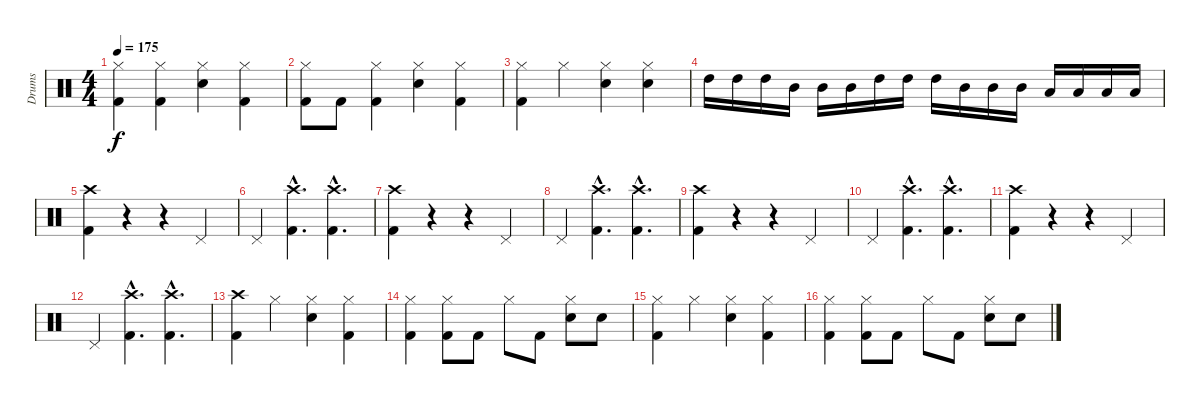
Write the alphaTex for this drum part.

\track ("Drums" "Drums") {instrument percussion}
\staff {score}
\articulation defaults
\ts (4 4)
\tempo 175
\clef neutral
\ks c
("Hi-Hat (closed)" "Kick (hit) 2").4{dy f} ("Hi-Hat (closed)" "Kick (hit) 2").4 ("Hi-Hat (closed)" "Electric Snare (hit)").4 ("Hi-Hat (closed)" "Kick (hit) 2").4 |
("Hi-Hat (closed)" "Kick (hit) 2").8 "Kick (hit) 2".8 ("Hi-Hat (closed)" "Kick (hit) 2").4 ("Hi-Hat (closed)" "Electric Snare (hit)").4 ("Hi-Hat (closed)" "Kick (hit) 2").4 |
("Hi-Hat (closed)" "Kick (hit) 2").4 "Hi-Hat (closed)".4 ("Hi-Hat (closed)" "Electric Snare (hit)").4 ("Hi-Hat (closed)" "Electric Snare (hit)").4 |
"High Tom (hit)".16 "High Tom (hit)".16 "High Tom (hit)".16 "Mid Tom (hit)".16 "Mid Tom (hit)".16 "Mid Tom (hit)".16 "High Tom (hit)".16 "High Tom (hit)".16 "High Tom (hit)".16 "Mid Tom (hit)".16 "Mid Tom (hit)".16 "Mid Tom (hit)".16 "Low Tom (hit)".16 "Low Tom (hit)".16 "Low Tom (hit)".16 "Low Tom (hit)".16 |
("Crash high (hit)" "Kick (hit) 2").4 r.4 r.4 "Pedal Hi-Hat (hit)".4 |
"Pedal Hi-Hat (hit)".4 ("Crash high (hit)"{hac} "Kick (hit) 2"{hac}).4{d} ("Crash high (hit)"{hac} "Kick (hit) 2"{hac}).4{d} |
("Crash high (hit)" "Kick (hit) 2").4 r.4 r.4 "Pedal Hi-Hat (hit)".4 |
"Pedal Hi-Hat (hit)".4 ("Crash high (hit)"{hac} "Kick (hit) 2"{hac}).4{d} ("Crash high (hit)"{hac} "Kick (hit) 2"{hac}).4{d} |
("Crash high (hit)" "Kick (hit) 2").4 r.4 r.4 "Pedal Hi-Hat (hit)".4 |
"Pedal Hi-Hat (hit)".4 ("Crash high (hit)"{hac} "Kick (hit) 2"{hac}).4{d} ("Crash high (hit)"{hac} "Kick (hit) 2"{hac}).4{d} |
("Crash high (hit)" "Kick (hit) 2").4 r.4 r.4 "Pedal Hi-Hat (hit)".4 |
"Pedal Hi-Hat (hit)".4 ("Crash high (hit)"{hac} "Kick (hit) 2"{hac}).4{d} ("Crash high (hit)"{hac} "Kick (hit) 2"{hac}).4{d} |
("Crash high (hit)" "Kick (hit) 2").4 "Hi-Hat (closed)".4 ("Hi-Hat (closed)" "Electric Snare (hit)").4 ("Hi-Hat (closed)" "Kick (hit) 2").4 |
("Hi-Hat (closed)" "Kick (hit) 2").4 ("Hi-Hat (closed)" "Kick (hit) 2").8 "Kick (hit) 2".8 "Hi-Hat (closed)".8 "Kick (hit) 2".8 ("Hi-Hat (closed)" "Electric Snare (hit)").8 "Electric Snare (hit)".8 |
("Hi-Hat (closed)" "Kick (hit) 2").4 "Hi-Hat (closed)".4 ("Hi-Hat (closed)" "Electric Snare (hit)").4 ("Hi-Hat (closed)" "Kick (hit) 2").4 |
("Hi-Hat (closed)" "Kick (hit) 2").4 ("Hi-Hat (closed)" "Kick (hit) 2").8 "Kick (hit) 2".8 "Hi-Hat (closed)".8 "Kick (hit) 2".8 ("Hi-Hat (closed)" "Electric Snare (hit)").8 "Electric Snare (hit)".8
